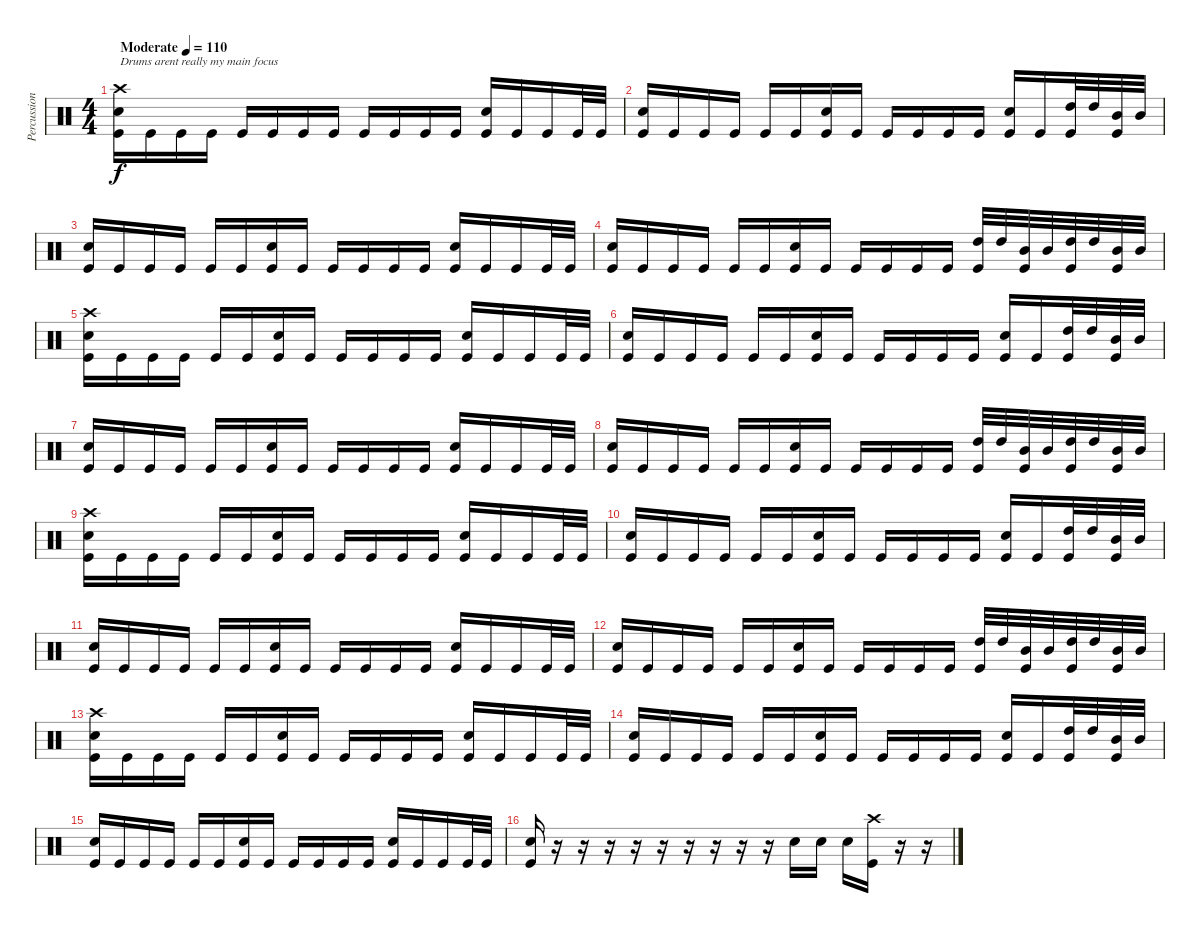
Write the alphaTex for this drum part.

\track ("Percussion" "Percussion") {instrument percussion}
\staff {score}
\articulation defaults
\ts (4 4)
\tempo (110 "Moderate")
\clef neutral
\ks c
("Crash high (hit)" "Electric Snare (hit)" "Kick (hit)").16{txt "Drums arent really my main focus" dy f} "Kick (hit)".16 "Kick (hit)".16 "Kick (hit)".16 "Kick (hit)".16 "Kick (hit)".16 "Kick (hit)".16 "Kick (hit)".16 "Kick (hit)".16 "Kick (hit)".16 "Kick (hit)".16 "Kick (hit)".16 ("Electric Snare (hit)" "Kick (hit)").16 "Kick (hit)".16 "Kick (hit)".16 "Kick (hit)".32 "Kick (hit)".32 |
("Electric Snare (hit)" "Kick (hit)").16 "Kick (hit)".16 "Kick (hit)".16 "Kick (hit)".16 "Kick (hit)".16 "Kick (hit)".16 ("Electric Snare (hit)" "Kick (hit)").16 "Kick (hit)".16 "Kick (hit)".16 "Kick (hit)".16 "Kick (hit)".16 "Kick (hit)".16 ("Electric Snare (hit)" "Kick (hit)").16 "Kick (hit)".16 ("High Tom (hit)" "Kick (hit)").32 "High Tom (hit)".32 ("Mid Tom (hit)" "Kick (hit)").32 "Mid Tom (hit)".32 |
("Electric Snare (hit)" "Kick (hit)").16 "Kick (hit)".16 "Kick (hit)".16 "Kick (hit)".16 "Kick (hit)".16 "Kick (hit)".16 ("Electric Snare (hit)" "Kick (hit)").16 "Kick (hit)".16 "Kick (hit)".16 "Kick (hit)".16 "Kick (hit)".16 "Kick (hit)".16 ("Electric Snare (hit)" "Kick (hit)").16 "Kick (hit)".16 "Kick (hit)".16 "Kick (hit)".32 "Kick (hit)".32 |
("Electric Snare (hit)" "Kick (hit)").16 "Kick (hit)".16 "Kick (hit)".16 "Kick (hit)".16 "Kick (hit)".16 "Kick (hit)".16 ("Electric Snare (hit)" "Kick (hit)").16 "Kick (hit)".16 "Kick (hit)".16 "Kick (hit)".16 "Kick (hit)".16 "Kick (hit)".16 ("High Tom (hit)" "Kick (hit)").32 "High Tom (hit)".32 ("Mid Tom (hit)" "Kick (hit)").32 "Mid Tom (hit)".32 ("High Tom (hit)" "Kick (hit)").32 "High Tom (hit)".32 ("Mid Tom (hit)" "Kick (hit)").32 "Mid Tom (hit)".32 |
("Crash high (hit)" "Electric Snare (hit)" "Kick (hit)").16 "Kick (hit)".16 "Kick (hit)".16 "Kick (hit)".16 "Kick (hit)".16 "Kick (hit)".16 ("Electric Snare (hit)" "Kick (hit)").16 "Kick (hit)".16 "Kick (hit)".16 "Kick (hit)".16 "Kick (hit)".16 "Kick (hit)".16 ("Electric Snare (hit)" "Kick (hit)").16 "Kick (hit)".16 "Kick (hit)".16 "Kick (hit)".32 "Kick (hit)".32 |
("Electric Snare (hit)" "Kick (hit)").16 "Kick (hit)".16 "Kick (hit)".16 "Kick (hit)".16 "Kick (hit)".16 "Kick (hit)".16 ("Electric Snare (hit)" "Kick (hit)").16 "Kick (hit)".16 "Kick (hit)".16 "Kick (hit)".16 "Kick (hit)".16 "Kick (hit)".16 ("Electric Snare (hit)" "Kick (hit)").16 "Kick (hit)".16 ("High Tom (hit)" "Kick (hit)").32 "High Tom (hit)".32 ("Mid Tom (hit)" "Kick (hit)").32 "Mid Tom (hit)".32 |
("Electric Snare (hit)" "Kick (hit)").16 "Kick (hit)".16 "Kick (hit)".16 "Kick (hit)".16 "Kick (hit)".16 "Kick (hit)".16 ("Electric Snare (hit)" "Kick (hit)").16 "Kick (hit)".16 "Kick (hit)".16 "Kick (hit)".16 "Kick (hit)".16 "Kick (hit)".16 ("Electric Snare (hit)" "Kick (hit)").16 "Kick (hit)".16 "Kick (hit)".16 "Kick (hit)".32 "Kick (hit)".32 |
("Electric Snare (hit)" "Kick (hit)").16 "Kick (hit)".16 "Kick (hit)".16 "Kick (hit)".16 "Kick (hit)".16 "Kick (hit)".16 ("Electric Snare (hit)" "Kick (hit)").16 "Kick (hit)".16 "Kick (hit)".16 "Kick (hit)".16 "Kick (hit)".16 "Kick (hit)".16 ("High Tom (hit)" "Kick (hit)").32 "High Tom (hit)".32 ("Mid Tom (hit)" "Kick (hit)").32 "Mid Tom (hit)".32 ("High Tom (hit)" "Kick (hit)").32 "High Tom (hit)".32 ("Mid Tom (hit)" "Kick (hit)").32 "Mid Tom (hit)".32 |
("Crash high (hit)" "Electric Snare (hit)" "Kick (hit)").16 "Kick (hit)".16 "Kick (hit)".16 "Kick (hit)".16 "Kick (hit)".16 "Kick (hit)".16 ("Electric Snare (hit)" "Kick (hit)").16 "Kick (hit)".16 "Kick (hit)".16 "Kick (hit)".16 "Kick (hit)".16 "Kick (hit)".16 ("Electric Snare (hit)" "Kick (hit)").16 "Kick (hit)".16 "Kick (hit)".16 "Kick (hit)".32 "Kick (hit)".32 |
("Electric Snare (hit)" "Kick (hit)").16 "Kick (hit)".16 "Kick (hit)".16 "Kick (hit)".16 "Kick (hit)".16 "Kick (hit)".16 ("Electric Snare (hit)" "Kick (hit)").16 "Kick (hit)".16 "Kick (hit)".16 "Kick (hit)".16 "Kick (hit)".16 "Kick (hit)".16 ("Electric Snare (hit)" "Kick (hit)").16 "Kick (hit)".16 ("High Tom (hit)" "Kick (hit)").32 "High Tom (hit)".32 ("Mid Tom (hit)" "Kick (hit)").32 "Mid Tom (hit)".32 |
("Electric Snare (hit)" "Kick (hit)").16 "Kick (hit)".16 "Kick (hit)".16 "Kick (hit)".16 "Kick (hit)".16 "Kick (hit)".16 ("Electric Snare (hit)" "Kick (hit)").16 "Kick (hit)".16 "Kick (hit)".16 "Kick (hit)".16 "Kick (hit)".16 "Kick (hit)".16 ("Electric Snare (hit)" "Kick (hit)").16 "Kick (hit)".16 "Kick (hit)".16 "Kick (hit)".32 "Kick (hit)".32 |
("Electric Snare (hit)" "Kick (hit)").16 "Kick (hit)".16 "Kick (hit)".16 "Kick (hit)".16 "Kick (hit)".16 "Kick (hit)".16 ("Electric Snare (hit)" "Kick (hit)").16 "Kick (hit)".16 "Kick (hit)".16 "Kick (hit)".16 "Kick (hit)".16 "Kick (hit)".16 ("High Tom (hit)" "Kick (hit)").32 "High Tom (hit)".32 ("Mid Tom (hit)" "Kick (hit)").32 "Mid Tom (hit)".32 ("High Tom (hit)" "Kick (hit)").32 "High Tom (hit)".32 ("Mid Tom (hit)" "Kick (hit)").32 "Mid Tom (hit)".32 |
("Crash high (hit)" "Electric Snare (hit)" "Kick (hit)").16 "Kick (hit)".16 "Kick (hit)".16 "Kick (hit)".16 "Kick (hit)".16 "Kick (hit)".16 ("Electric Snare (hit)" "Kick (hit)").16 "Kick (hit)".16 "Kick (hit)".16 "Kick (hit)".16 "Kick (hit)".16 "Kick (hit)".16 ("Electric Snare (hit)" "Kick (hit)").16 "Kick (hit)".16 "Kick (hit)".16 "Kick (hit)".32 "Kick (hit)".32 |
("Electric Snare (hit)" "Kick (hit)").16 "Kick (hit)".16 "Kick (hit)".16 "Kick (hit)".16 "Kick (hit)".16 "Kick (hit)".16 ("Electric Snare (hit)" "Kick (hit)").16 "Kick (hit)".16 "Kick (hit)".16 "Kick (hit)".16 "Kick (hit)".16 "Kick (hit)".16 ("Electric Snare (hit)" "Kick (hit)").16 "Kick (hit)".16 ("High Tom (hit)" "Kick (hit)").32 "High Tom (hit)".32 ("Mid Tom (hit)" "Kick (hit)").32 "Mid Tom (hit)".32 |
("Electric Snare (hit)" "Kick (hit)").16 "Kick (hit)".16 "Kick (hit)".16 "Kick (hit)".16 "Kick (hit)".16 "Kick (hit)".16 ("Electric Snare (hit)" "Kick (hit)").16 "Kick (hit)".16 "Kick (hit)".16 "Kick (hit)".16 "Kick (hit)".16 "Kick (hit)".16 ("Electric Snare (hit)" "Kick (hit)").16 "Kick (hit)".16 "Kick (hit)".16 "Kick (hit)".32 "Kick (hit)".32 |
("Electric Snare (hit)" "Kick (hit)").16 r.16 r.16 r.16 r.16 r.16 r.16 r.16 r.16 r.16 "Electric Snare (hit)".16 "Electric Snare (hit)".16 "Electric Snare (hit)".16 ("Crash high (hit)" "Kick (hit)").16 r.16 r.16
